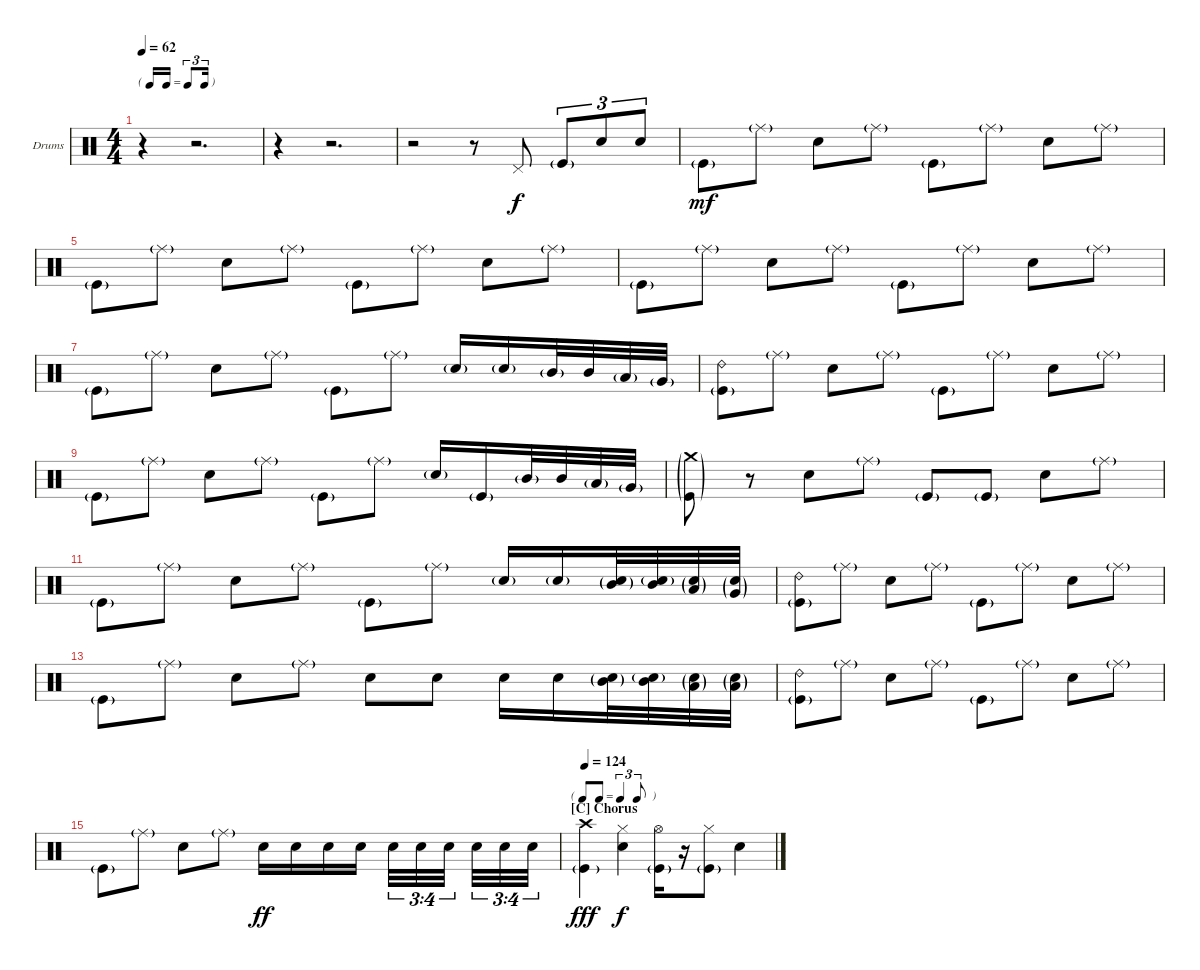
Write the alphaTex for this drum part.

\bracketExtendMode nobrackets
\firstSystemTrackNameOrientation horizontal
\otherSystemsTrackNameOrientation horizontal
\defaultBarNumberDisplay FirstOfSystem
\track ("Drumkit" "Drums") {instrument percussion}
\staff {score}
\articulation defaults
\ts (4 4)
\tf triplet16th
\tempo 62
\clef neutral
\ks c
r.4{dy f} r.2{d} |
r.4 r.2{d} |
r.2 r.8 "Pedal Hi-Hat (hit)".8 "Kick (hit)"{g}.8{tu (3 2)} "Snare (hit) 2".8{tu (3 2)} "Snare (hit) 2".8{tu (3 2)} |
"Kick (hit)"{g}.8{dy mf} "Ride (middle)"{g}.8 "Snare (hit) 2".8 "Ride (middle)"{g}.8 "Kick (hit)"{g}.8 "Ride (middle)"{g}.8 "Snare (hit) 2".8 "Ride (middle)"{g}.8 |
"Kick (hit)"{g}.8 "Ride (middle)"{g}.8 "Snare (hit) 2".8 "Ride (middle)"{g}.8 "Kick (hit)"{g}.8 "Ride (middle)"{g}.8 "Snare (hit) 2".8 "Ride (middle)"{g}.8 |
"Kick (hit)"{g}.8 "Ride (middle)"{g}.8 "Snare (hit) 2".8 "Ride (middle)"{g}.8 "Kick (hit)"{g}.8 "Ride (middle)"{g}.8 "Snare (hit) 2".8 "Ride (middle)"{g}.8 |
"Kick (hit)"{g}.8 "Ride (middle)"{g}.8 "Snare (hit) 2".8 "Ride (middle)"{g}.8 "Kick (hit)"{g}.8 "Ride (middle)"{g}.8 "Snare (hit) 2"{g}.16 "Snare (hit) 2"{g}.16 "Mid Tom (hit)"{g}.32 "Mid Tom (hit)".32 "Low Tom (hit)"{g}.32 "Very Low Tom (hit)"{g}.32 |
("Kick (hit)"{g} "Ride (bell) 2").8 "Ride (middle)"{g}.8 "Snare (hit) 2".8 "Ride (middle)"{g}.8 "Kick (hit)"{g}.8 "Ride (middle)"{g}.8 "Snare (hit) 2".8 "Ride (middle)"{g}.8 |
"Kick (hit)"{g}.8 "Ride (middle)"{g}.8 "Snare (hit) 2".8 "Ride (middle)"{g}.8 "Kick (hit)"{g}.8 "Ride (middle)"{g}.8 "Snare (hit) 2"{g}.16 "Kick (hit)"{g}.16 "Mid Tom (hit)"{g}.32 "Mid Tom (hit)".32 "Low Tom (hit)"{g}.32 "Very Low Tom (hit)"{g}.32 |
("Kick (hit)"{g} "Crash medium (hit)"{g}).8 r.8 "Snare (hit) 2".8 "Ride (middle)"{g}.8 "Kick (hit)"{g}.8 "Kick (hit)"{g}.8 "Snare (hit) 2".8 "Ride (middle)"{g}.8 |
"Kick (hit)"{g}.8 "Ride (middle)"{g}.8 "Snare (hit) 2".8 "Ride (middle)"{g}.8 "Kick (hit)"{g}.8 "Ride (middle)"{g}.8 "Snare (hit) 2"{g}.16 "Snare (hit) 2"{g}.16 ("Mid Tom (hit)"{g} "Snare (hit) 2"{g}).32 ("Mid Tom (hit)" "Snare (hit) 2"{g}).32 ("Low Tom (hit)"{g} "Snare (hit) 2"{g}).32 ("Very Low Tom (hit)"{g} "Snare (hit) 2"{g}).32 |
("Kick (hit)"{g} "Ride (bell) 2").8 "Ride (middle)"{g}.8 "Snare (hit) 2".8 "Ride (middle)"{g}.8 "Kick (hit)"{g}.8 "Ride (middle)"{g}.8 "Snare (hit) 2".8 "Ride (middle)"{g}.8 |
"Kick (hit)"{g}.8 "Ride (middle)"{g}.8 "Snare (hit) 2".8 "Ride (middle)"{g}.8 "Snare (hit) 2".8 "Snare (hit) 2".8 "Snare (hit) 2".16 "Snare (hit) 2".16 ("Mid Tom (hit)"{g} "Snare (hit) 2"{g}).32 ("Mid Tom (hit)" "Snare (hit) 2"{g}).32 ("Low Tom (hit)"{g} "Snare (hit) 2"{g}).32 ("Snare (hit) 2"{g} "Low Tom (hit)"{g}).32 |
("Kick (hit)"{g} "Ride (bell) 2").8 "Ride (middle)"{g}.8 "Snare (hit) 2".8 "Ride (middle)"{g}.8 "Kick (hit)"{g}.8 "Ride (middle)"{g}.8 "Snare (hit) 2".8 "Ride (middle)"{g}.8 |
"Kick (hit)"{g}.8 "Ride (middle)"{g}.8 "Snare (hit) 2".8 "Ride (middle)"{g}.8 "Snare (hit) 2".16{dy ff} "Snare (hit) 2".16 "Snare (hit) 2".16 "Snare (hit) 2".16 "Snare (hit) 2".32{tu (3 4)} "Snare (hit) 2".32{tu (3 4)} "Snare (hit) 2".32{tu (3 4)} "Snare (hit) 2".32{tu (3 4)} "Snare (hit) 2".32{tu (3 4)} "Snare (hit) 2".32{tu (3 4)} |
\tf triplet8th
\section ("C" "Chorus")
\tempo 124
("Kick (hit)"{g} "Crash high (hit)").4{dy fff} ("Snare (hit) 2" "Hi-Hat (closed)").4{dy f} ("Kick (hit)"{g} "Hi-Hat (open)").16 r.16 ("Kick (hit)"{g} "Hi-Hat (closed)").8 "Snare (hit) 2".4
